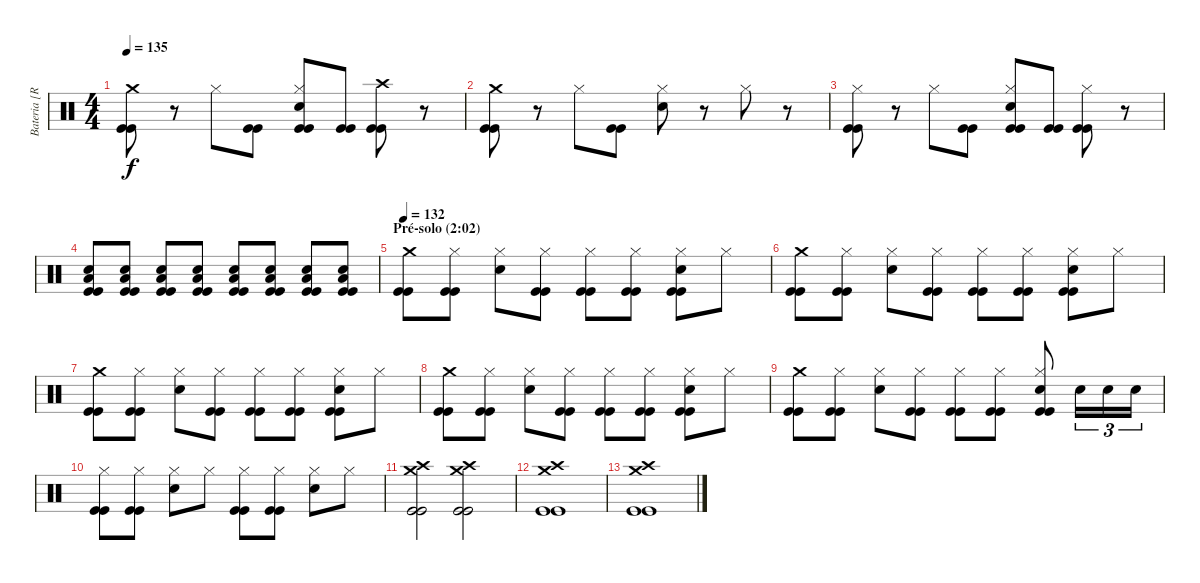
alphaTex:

\track ("Bateria [Ricardo Confessori]" "Bateria [R") {instrument percussion}
\staff {score}
\articulation defaults
\ts (4 4)
\tempo 135
\clef neutral
\ks c
("Crash medium (hit)" "Kick (hit)" "Kick (hit)").8{dy f} r.8 "Hi-Hat (closed)".8 ("Kick (hit)" "Kick (hit)").8 ("Hi-Hat (closed)" "Electric Snare (hit)" "Kick (hit)" "Kick (hit)").8 ("Kick (hit)" "Kick (hit)").8 ("Crash high (hit)" "Kick (hit)" "Kick (hit)").8 r.8 |
("Crash medium (hit)" "Kick (hit)" "Kick (hit)").8 r.8 "Hi-Hat (closed)".8 ("Kick (hit)" "Kick (hit)").8 ("Hi-Hat (closed)" "Electric Snare (hit)").8 r.8 "Hi-Hat (closed)".8 r.8 |
("Hi-Hat (closed)" "Kick (hit)" "Kick (hit)").8 r.8 "Hi-Hat (closed)".8 ("Kick (hit)" "Kick (hit)").8 ("Hi-Hat (closed)" "Electric Snare (hit)" "Kick (hit)" "Kick (hit)").8 ("Kick (hit)" "Kick (hit)").8 ("Hi-Hat (closed)" "Kick (hit)" "Kick (hit)").8 r.8 |
("Electric Snare (hit)" "Low Floor Tom (hit)" "Kick (hit)" "Kick (hit)").8 ("Electric Snare (hit)" "Low Floor Tom (hit)" "Kick (hit)" "Kick (hit)").8 ("Electric Snare (hit)" "Low Floor Tom (hit)" "Kick (hit)" "Kick (hit)").8 ("Electric Snare (hit)" "Low Floor Tom (hit)" "Kick (hit)" "Kick (hit)").8 ("Electric Snare (hit)" "Low Floor Tom (hit)" "Kick (hit)" "Kick (hit)").8 ("Electric Snare (hit)" "Low Floor Tom (hit)" "Kick (hit)" "Kick (hit)").8 ("Electric Snare (hit)" "Low Floor Tom (hit)" "Kick (hit)" "Kick (hit)").8 ("Electric Snare (hit)" "Low Floor Tom (hit)" "Kick (hit)" "Kick (hit)").8 |
\section ("" "Pré-solo (2:02)")
\tempo 132
("Crash medium (hit)" "Kick (hit)" "Kick (hit)").8 ("Hi-Hat (closed)" "Kick (hit)" "Kick (hit)").8 ("Hi-Hat (closed)" "Electric Snare (hit)").8 ("Hi-Hat (closed)" "Kick (hit)" "Kick (hit)").8 ("Hi-Hat (closed)" "Kick (hit)" "Kick (hit)").8 ("Hi-Hat (closed)" "Kick (hit)" "Kick (hit)").8 ("Hi-Hat (closed)" "Electric Snare (hit)" "Kick (hit)" "Kick (hit)").8 "Hi-Hat (closed)".8 |
("Crash medium (hit)" "Kick (hit)" "Kick (hit)").8 ("Hi-Hat (closed)" "Kick (hit)" "Kick (hit)").8 ("Hi-Hat (closed)" "Electric Snare (hit)").8 ("Hi-Hat (closed)" "Kick (hit)" "Kick (hit)").8 ("Hi-Hat (closed)" "Kick (hit)" "Kick (hit)").8 ("Hi-Hat (closed)" "Kick (hit)" "Kick (hit)").8 ("Hi-Hat (closed)" "Electric Snare (hit)" "Kick (hit)" "Kick (hit)").8 "Hi-Hat (closed)".8 |
("Crash medium (hit)" "Kick (hit)" "Kick (hit)").8 ("Hi-Hat (closed)" "Kick (hit)" "Kick (hit)").8 ("Hi-Hat (closed)" "Electric Snare (hit)").8 ("Hi-Hat (closed)" "Kick (hit)" "Kick (hit)").8 ("Hi-Hat (closed)" "Kick (hit)" "Kick (hit)").8 ("Hi-Hat (closed)" "Kick (hit)" "Kick (hit)").8 ("Hi-Hat (closed)" "Electric Snare (hit)" "Kick (hit)" "Kick (hit)").8 "Hi-Hat (closed)".8 |
("Crash medium (hit)" "Kick (hit)" "Kick (hit)").8 ("Hi-Hat (closed)" "Kick (hit)" "Kick (hit)").8 ("Hi-Hat (closed)" "Electric Snare (hit)").8 ("Hi-Hat (closed)" "Kick (hit)" "Kick (hit)").8 ("Hi-Hat (closed)" "Kick (hit)" "Kick (hit)").8 ("Hi-Hat (closed)" "Kick (hit)" "Kick (hit)").8 ("Hi-Hat (closed)" "Electric Snare (hit)" "Kick (hit)" "Kick (hit)").8 "Hi-Hat (closed)".8 |
("Crash medium (hit)" "Kick (hit)" "Kick (hit)").8 ("Hi-Hat (closed)" "Kick (hit)" "Kick (hit)").8 ("Hi-Hat (closed)" "Electric Snare (hit)").8 ("Hi-Hat (closed)" "Kick (hit)" "Kick (hit)").8 ("Hi-Hat (closed)" "Kick (hit)" "Kick (hit)").8 ("Hi-Hat (closed)" "Kick (hit)" "Kick (hit)").8 ("Hi-Hat (closed)" "Electric Snare (hit)" "Kick (hit)" "Kick (hit)").8 "Electric Snare (hit)".16{tu (3 2)} "Electric Snare (hit)".16{tu (3 2)} "Electric Snare (hit)".16{tu (3 2)} |
("Hi-Hat (closed)" "Kick (hit)" "Kick (hit)").8 ("Hi-Hat (closed)" "Kick (hit)" "Kick (hit)").8 ("Hi-Hat (closed)" "Electric Snare (hit)").8 "Hi-Hat (closed)".8 ("Hi-Hat (closed)" "Kick (hit)" "Kick (hit)").8 ("Hi-Hat (closed)" "Kick (hit)" "Kick (hit)").8 ("Hi-Hat (closed)" "Electric Snare (hit)").8 "Hi-Hat (closed)".8 |
("Crash medium (hit)" "Crash high (hit)" "Kick (hit)" "Kick (hit)").2 ("Crash medium (hit)" "Crash high (hit)" "Kick (hit)" "Kick (hit)").2 |
("Crash medium (hit)" "Crash high (hit)" "Kick (hit)" "Kick (hit)").1 |
("Crash medium (hit)" "Crash high (hit)" "Kick (hit)" "Kick (hit)").1
